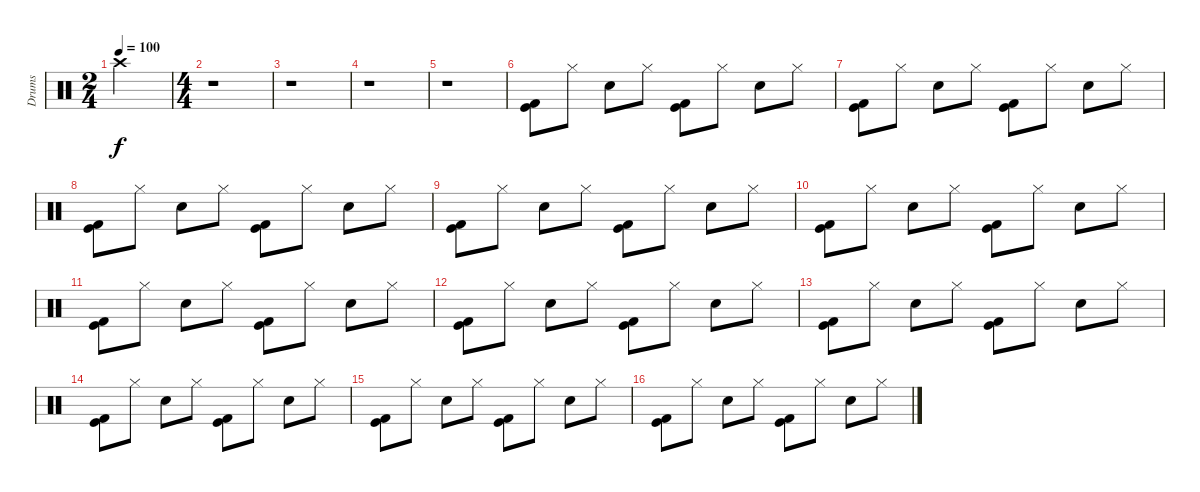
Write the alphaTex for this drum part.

\track ("Drums" "Drums") {instrument percussion}
\staff {score}
\articulation defaults
\ts (2 4)
\tempo 100
\clef neutral
\ks c "Crash high (hit)".2{dy f}
|
\ts (4 4)
r.1 |
r.1 |
r.1 |
r.1 |
("Kick (hit)" "Kick (hit) 2").8 "Hi-Hat (closed)".8 "Snare (hit) 2".8 "Hi-Hat (closed)".8 ("Kick (hit)" "Kick (hit) 2").8 "Hi-Hat (closed)".8 "Snare (hit) 2".8 "Hi-Hat (closed)".8 |
("Kick (hit)" "Kick (hit) 2").8 "Hi-Hat (closed)".8 "Snare (hit) 2".8 "Hi-Hat (closed)".8 ("Kick (hit)" "Kick (hit) 2").8 "Hi-Hat (closed)".8 "Snare (hit) 2".8 "Hi-Hat (closed)".8 |
("Kick (hit)" "Kick (hit) 2").8 "Hi-Hat (closed)".8 "Snare (hit) 2".8 "Hi-Hat (closed)".8 ("Kick (hit)" "Kick (hit) 2").8 "Hi-Hat (closed)".8 "Snare (hit) 2".8 "Hi-Hat (closed)".8 |
("Kick (hit)" "Kick (hit) 2").8 "Hi-Hat (closed)".8 "Snare (hit) 2".8 "Hi-Hat (closed)".8 ("Kick (hit)" "Kick (hit) 2").8 "Hi-Hat (closed)".8 "Snare (hit) 2".8 "Hi-Hat (closed)".8 |
("Kick (hit)" "Kick (hit) 2").8 "Hi-Hat (closed)".8 "Snare (hit) 2".8 "Hi-Hat (closed)".8 ("Kick (hit)" "Kick (hit) 2").8 "Hi-Hat (closed)".8 "Snare (hit) 2".8 "Hi-Hat (closed)".8 |
("Kick (hit)" "Kick (hit) 2").8 "Hi-Hat (closed)".8 "Snare (hit) 2".8 "Hi-Hat (closed)".8 ("Kick (hit)" "Kick (hit) 2").8 "Hi-Hat (closed)".8 "Snare (hit) 2".8 "Hi-Hat (closed)".8 |
("Kick (hit)" "Kick (hit) 2").8 "Hi-Hat (closed)".8 "Snare (hit) 2".8 "Hi-Hat (closed)".8 ("Kick (hit)" "Kick (hit) 2").8 "Hi-Hat (closed)".8 "Snare (hit) 2".8 "Hi-Hat (closed)".8 |
("Kick (hit)" "Kick (hit) 2").8 "Hi-Hat (closed)".8 "Snare (hit) 2".8 "Hi-Hat (closed)".8 ("Kick (hit)" "Kick (hit) 2").8 "Hi-Hat (closed)".8 "Snare (hit) 2".8 "Hi-Hat (closed)".8 |
("Kick (hit)" "Kick (hit) 2").8 "Hi-Hat (closed)".8 "Snare (hit) 2".8 "Hi-Hat (closed)".8 ("Kick (hit)" "Kick (hit) 2").8 "Hi-Hat (closed)".8 "Snare (hit) 2".8 "Hi-Hat (closed)".8 |
("Kick (hit)" "Kick (hit) 2").8 "Hi-Hat (closed)".8 "Snare (hit) 2".8 "Hi-Hat (closed)".8 ("Kick (hit)" "Kick (hit) 2").8 "Hi-Hat (closed)".8 "Snare (hit) 2".8 "Hi-Hat (closed)".8 |
("Kick (hit)" "Kick (hit) 2").8 "Hi-Hat (closed)".8 "Snare (hit) 2".8 "Hi-Hat (closed)".8 ("Kick (hit)" "Kick (hit) 2").8 "Hi-Hat (closed)".8 "Snare (hit) 2".8 "Hi-Hat (closed)".8
